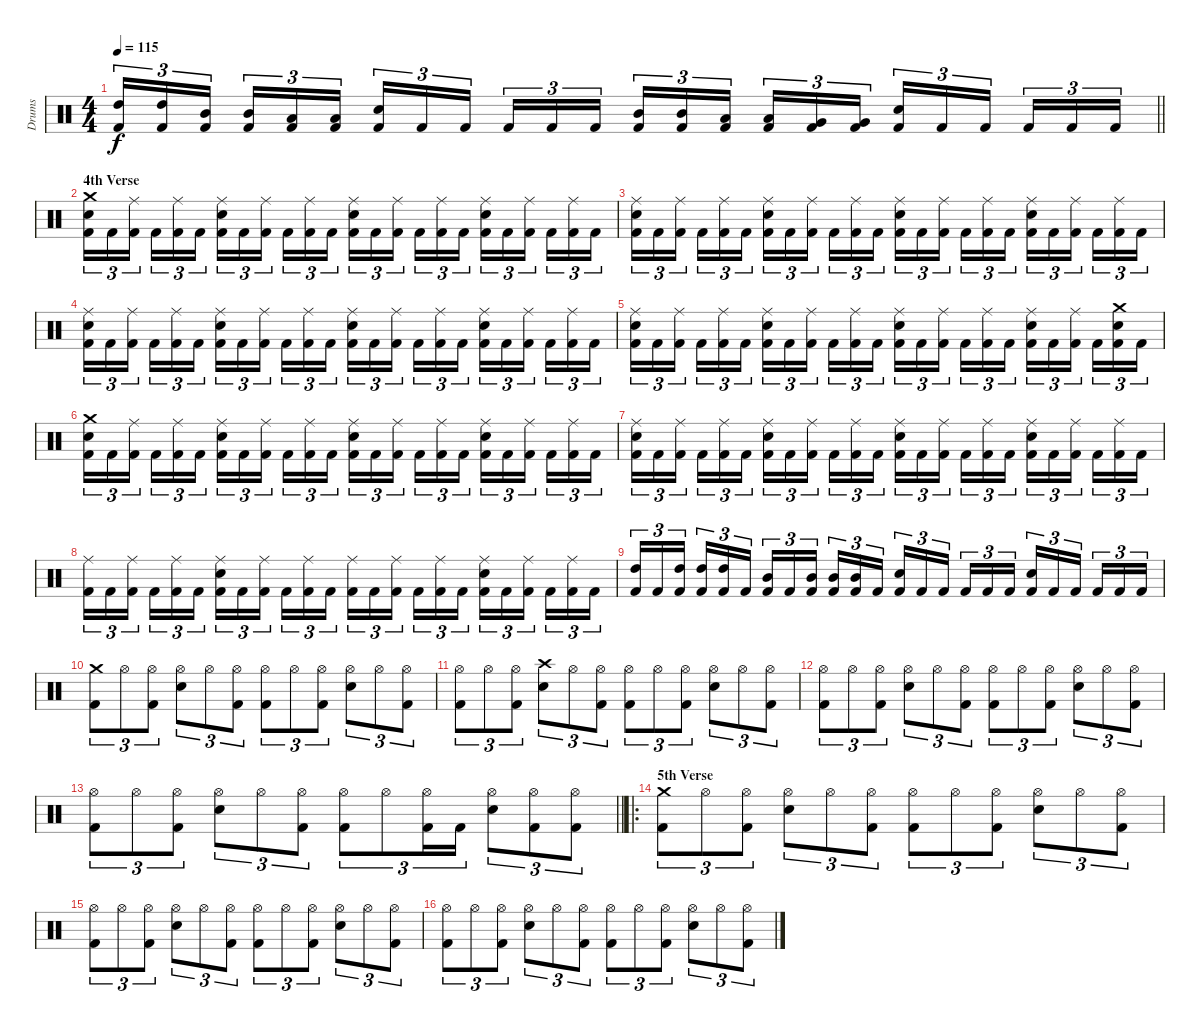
\track ("Drums" "Drums") {instrument percussion}
\staff {score}
\articulation defaults
\ts (4 4)
\tempo 115
\clef neutral
\barLineRight lightlight
\ks c
("Kick (hit) 2" "High Tom (hit)").16{tu (3 2) dy f} ("Kick (hit) 2" "High Tom (hit)").16{tu (3 2)} ("Kick (hit) 2" "Mid Tom (hit)").16{tu (3 2)} ("Kick (hit) 2" "Mid Tom (hit)").16{tu (3 2)} ("Kick (hit) 2" "Low Tom (hit)").16{tu (3 2)} ("Kick (hit) 2" "Low Tom (hit)").16{tu (3 2)} ("Kick (hit) 2" "Electric Snare (hit)").16{tu (3 2)} "Kick (hit) 2".16{tu (3 2)} "Kick (hit) 2".16{tu (3 2)} "Kick (hit) 2".16{tu (3 2)} "Kick (hit) 2".16{tu (3 2)} "Kick (hit) 2".16{tu (3 2)} ("Kick (hit) 2" "Mid Tom (hit)").16{tu (3 2)} ("Kick (hit) 2" "Mid Tom (hit)").16{tu (3 2)} ("Kick (hit) 2" "Low Tom (hit)").16{tu (3 2)} ("Kick (hit) 2" "Low Tom (hit)").16{tu (3 2)} ("Kick (hit) 2" "Very Low Tom (hit)").16{tu (3 2)} ("Kick (hit) 2" "Very Low Tom (hit)").16{tu (3 2)} ("Kick (hit) 2" "Electric Snare (hit)").16{tu (3 2)} "Kick (hit) 2".16{tu (3 2)} "Kick (hit) 2".16{tu (3 2)} "Kick (hit) 2".16{tu (3 2)} "Kick (hit) 2".16{tu (3 2)} "Kick (hit) 2".16{tu (3 2)} |
\section ("" "4th Verse")
("Kick (hit) 2" "Electric Snare (hit)" "Crash medium (hit)").16{tu (3 2)} "Kick (hit) 2".16{tu (3 2)} ("Kick (hit) 2" "Ride (middle)").16{tu (3 2)} "Kick (hit) 2".16{tu (3 2)} ("Kick (hit) 2" "Ride (middle)").16{tu (3 2)} "Kick (hit) 2".16{tu (3 2)} ("Kick (hit) 2" "Electric Snare (hit)" "Ride (middle)").16{tu (3 2)} "Kick (hit) 2".16{tu (3 2)} ("Kick (hit) 2" "Ride (middle)").16{tu (3 2)} "Kick (hit) 2".16{tu (3 2)} ("Kick (hit) 2" "Ride (middle)").16{tu (3 2)} "Kick (hit) 2".16{tu (3 2)} ("Kick (hit) 2" "Electric Snare (hit)" "Ride (middle)").16{tu (3 2)} "Kick (hit) 2".16{tu (3 2)} ("Kick (hit) 2" "Ride (middle)").16{tu (3 2)} "Kick (hit) 2".16{tu (3 2)} ("Kick (hit) 2" "Ride (middle)").16{tu (3 2)} "Kick (hit) 2".16{tu (3 2)} ("Kick (hit) 2" "Electric Snare (hit)" "Ride (middle)").16{tu (3 2)} "Kick (hit) 2".16{tu (3 2)} ("Kick (hit) 2" "Ride (middle)").16{tu (3 2)} "Kick (hit) 2".16{tu (3 2)} ("Kick (hit) 2" "Ride (middle)").16{tu (3 2)} "Kick (hit) 2".16{tu (3 2)} |
("Kick (hit) 2" "Electric Snare (hit)" "Ride (middle)").16{tu (3 2)} "Kick (hit) 2".16{tu (3 2)} ("Kick (hit) 2" "Ride (middle)").16{tu (3 2)} "Kick (hit) 2".16{tu (3 2)} ("Kick (hit) 2" "Ride (middle)").16{tu (3 2)} "Kick (hit) 2".16{tu (3 2)} ("Kick (hit) 2" "Electric Snare (hit)" "Ride (middle)").16{tu (3 2)} "Kick (hit) 2".16{tu (3 2)} ("Kick (hit) 2" "Ride (middle)").16{tu (3 2)} "Kick (hit) 2".16{tu (3 2)} ("Kick (hit) 2" "Ride (middle)").16{tu (3 2)} "Kick (hit) 2".16{tu (3 2)} ("Kick (hit) 2" "Electric Snare (hit)" "Ride (middle)").16{tu (3 2)} "Kick (hit) 2".16{tu (3 2)} ("Kick (hit) 2" "Ride (middle)").16{tu (3 2)} "Kick (hit) 2".16{tu (3 2)} ("Kick (hit) 2" "Ride (middle)").16{tu (3 2)} "Kick (hit) 2".16{tu (3 2)} ("Kick (hit) 2" "Electric Snare (hit)" "Ride (middle)").16{tu (3 2)} "Kick (hit) 2".16{tu (3 2)} ("Kick (hit) 2" "Ride (middle)").16{tu (3 2)} "Kick (hit) 2".16{tu (3 2)} ("Kick (hit) 2" "Ride (middle)").16{tu (3 2)} "Kick (hit) 2".16{tu (3 2)} |
("Kick (hit) 2" "Electric Snare (hit)" "Ride (middle)").16{tu (3 2)} "Kick (hit) 2".16{tu (3 2)} ("Kick (hit) 2" "Ride (middle)").16{tu (3 2)} "Kick (hit) 2".16{tu (3 2)} ("Kick (hit) 2" "Ride (middle)").16{tu (3 2)} "Kick (hit) 2".16{tu (3 2)} ("Kick (hit) 2" "Electric Snare (hit)" "Ride (middle)").16{tu (3 2)} "Kick (hit) 2".16{tu (3 2)} ("Kick (hit) 2" "Ride (middle)").16{tu (3 2)} "Kick (hit) 2".16{tu (3 2)} ("Kick (hit) 2" "Ride (middle)").16{tu (3 2)} "Kick (hit) 2".16{tu (3 2)} ("Kick (hit) 2" "Electric Snare (hit)" "Ride (middle)").16{tu (3 2)} "Kick (hit) 2".16{tu (3 2)} ("Kick (hit) 2" "Ride (middle)").16{tu (3 2)} "Kick (hit) 2".16{tu (3 2)} ("Kick (hit) 2" "Ride (middle)").16{tu (3 2)} "Kick (hit) 2".16{tu (3 2)} ("Kick (hit) 2" "Electric Snare (hit)" "Ride (middle)").16{tu (3 2)} "Kick (hit) 2".16{tu (3 2)} ("Kick (hit) 2" "Ride (middle)").16{tu (3 2)} "Kick (hit) 2".16{tu (3 2)} ("Kick (hit) 2" "Ride (middle)").16{tu (3 2)} "Kick (hit) 2".16{tu (3 2)} |
("Kick (hit) 2" "Electric Snare (hit)" "Ride (middle)").16{tu (3 2)} "Kick (hit) 2".16{tu (3 2)} ("Kick (hit) 2" "Ride (middle)").16{tu (3 2)} "Kick (hit) 2".16{tu (3 2)} ("Kick (hit) 2" "Ride (middle)").16{tu (3 2)} "Kick (hit) 2".16{tu (3 2)} ("Kick (hit) 2" "Electric Snare (hit)" "Ride (middle)").16{tu (3 2)} "Kick (hit) 2".16{tu (3 2)} ("Kick (hit) 2" "Ride (middle)").16{tu (3 2)} "Kick (hit) 2".16{tu (3 2)} ("Kick (hit) 2" "Ride (middle)").16{tu (3 2)} "Kick (hit) 2".16{tu (3 2)} ("Kick (hit) 2" "Electric Snare (hit)" "Ride (middle)").16{tu (3 2)} "Kick (hit) 2".16{tu (3 2)} ("Kick (hit) 2" "Ride (middle)").16{tu (3 2)} "Kick (hit) 2".16{tu (3 2)} ("Kick (hit) 2" "Ride (middle)").16{tu (3 2)} "Kick (hit) 2".16{tu (3 2)} ("Kick (hit) 2" "Electric Snare (hit)" "Ride (middle)").16{tu (3 2)} "Kick (hit) 2".16{tu (3 2)} ("Kick (hit) 2" "Ride (middle)").16{tu (3 2)} "Kick (hit) 2".16{tu (3 2)} ("Kick (hit) 2" "Electric Snare (hit)" "Crash medium (hit)").16{tu (3 2)} "Kick (hit) 2".16{tu (3 2)} |
("Kick (hit) 2" "Electric Snare (hit)" "Crash medium (hit)").16{tu (3 2)} "Kick (hit) 2".16{tu (3 2)} ("Kick (hit) 2" "Ride (middle)").16{tu (3 2)} "Kick (hit) 2".16{tu (3 2)} ("Kick (hit) 2" "Ride (middle)").16{tu (3 2)} "Kick (hit) 2".16{tu (3 2)} ("Kick (hit) 2" "Electric Snare (hit)" "Ride (middle)").16{tu (3 2)} "Kick (hit) 2".16{tu (3 2)} ("Kick (hit) 2" "Ride (middle)").16{tu (3 2)} "Kick (hit) 2".16{tu (3 2)} ("Kick (hit) 2" "Ride (middle)").16{tu (3 2)} "Kick (hit) 2".16{tu (3 2)} ("Kick (hit) 2" "Electric Snare (hit)" "Ride (middle)").16{tu (3 2)} "Kick (hit) 2".16{tu (3 2)} ("Kick (hit) 2" "Ride (middle)").16{tu (3 2)} "Kick (hit) 2".16{tu (3 2)} ("Kick (hit) 2" "Ride (middle)").16{tu (3 2)} "Kick (hit) 2".16{tu (3 2)} ("Kick (hit) 2" "Electric Snare (hit)" "Ride (middle)").16{tu (3 2)} "Kick (hit) 2".16{tu (3 2)} ("Kick (hit) 2" "Ride (middle)").16{tu (3 2)} "Kick (hit) 2".16{tu (3 2)} ("Kick (hit) 2" "Ride (middle)").16{tu (3 2)} "Kick (hit) 2".16{tu (3 2)} |
("Kick (hit) 2" "Electric Snare (hit)" "Ride (middle)").16{tu (3 2)} "Kick (hit) 2".16{tu (3 2)} ("Kick (hit) 2" "Ride (middle)").16{tu (3 2)} "Kick (hit) 2".16{tu (3 2)} ("Kick (hit) 2" "Ride (middle)").16{tu (3 2)} "Kick (hit) 2".16{tu (3 2)} ("Kick (hit) 2" "Electric Snare (hit)" "Ride (middle)").16{tu (3 2)} "Kick (hit) 2".16{tu (3 2)} ("Kick (hit) 2" "Ride (middle)").16{tu (3 2)} "Kick (hit) 2".16{tu (3 2)} ("Kick (hit) 2" "Ride (middle)").16{tu (3 2)} "Kick (hit) 2".16{tu (3 2)} ("Kick (hit) 2" "Electric Snare (hit)" "Ride (middle)").16{tu (3 2)} "Kick (hit) 2".16{tu (3 2)} ("Kick (hit) 2" "Ride (middle)").16{tu (3 2)} "Kick (hit) 2".16{tu (3 2)} ("Kick (hit) 2" "Ride (middle)").16{tu (3 2)} "Kick (hit) 2".16{tu (3 2)} ("Kick (hit) 2" "Electric Snare (hit)" "Ride (middle)").16{tu (3 2)} "Kick (hit) 2".16{tu (3 2)} ("Kick (hit) 2" "Ride (middle)").16{tu (3 2)} "Kick (hit) 2".16{tu (3 2)} ("Kick (hit) 2" "Ride (middle)").16{tu (3 2)} "Kick (hit) 2".16{tu (3 2)} |
("Kick (hit) 2" "Ride (middle)").16{tu (3 2)} "Kick (hit) 2".16{tu (3 2)} ("Kick (hit) 2" "Ride (middle)").16{tu (3 2)} "Kick (hit) 2".16{tu (3 2)} ("Kick (hit) 2" "Ride (middle)").16{tu (3 2)} "Kick (hit) 2".16{tu (3 2)} ("Kick (hit) 2" "Electric Snare (hit)" "Ride (middle)").16{tu (3 2)} "Kick (hit) 2".16{tu (3 2)} ("Kick (hit) 2" "Ride (middle)").16{tu (3 2)} "Kick (hit) 2".16{tu (3 2)} ("Kick (hit) 2" "Ride (middle)").16{tu (3 2)} "Kick (hit) 2".16{tu (3 2)} ("Kick (hit) 2" "Ride (middle)").16{tu (3 2)} "Kick (hit) 2".16{tu (3 2)} ("Kick (hit) 2" "Ride (middle)").16{tu (3 2)} "Kick (hit) 2".16{tu (3 2)} ("Kick (hit) 2" "Ride (middle)").16{tu (3 2)} "Kick (hit) 2".16{tu (3 2)} ("Kick (hit) 2" "Electric Snare (hit)" "Ride (middle)").16{tu (3 2)} "Kick (hit) 2".16{tu (3 2)} ("Kick (hit) 2" "Ride (middle)").16{tu (3 2)} "Kick (hit) 2".16{tu (3 2)} ("Kick (hit) 2" "Ride (middle)").16{tu (3 2)} "Kick (hit) 2".16{tu (3 2)} |
("Kick (hit) 2" "High Tom (hit)").16{tu (3 2)} "Kick (hit) 2".16{tu (3 2)} ("Kick (hit) 2" "High Tom (hit)").16{tu (3 2)} ("Kick (hit) 2" "High Tom (hit)").16{tu (3 2)} ("Kick (hit) 2" "High Tom (hit)").16{tu (3 2)} "Kick (hit) 2".16{tu (3 2)} ("Kick (hit) 2" "Mid Tom (hit)").16{tu (3 2)} "Kick (hit) 2".16{tu (3 2)} ("Kick (hit) 2" "Mid Tom (hit)").16{tu (3 2)} ("Kick (hit) 2" "Mid Tom (hit)").16{tu (3 2)} ("Kick (hit) 2" "Mid Tom (hit)").16{tu (3 2)} "Kick (hit) 2".16{tu (3 2)} ("Kick (hit) 2" "Electric Snare (hit)").16{tu (3 2)} "Kick (hit) 2".16{tu (3 2)} "Kick (hit) 2".16{tu (3 2)} "Kick (hit) 2".16{tu (3 2)} "Kick (hit) 2".16{tu (3 2)} "Kick (hit) 2".16{tu (3 2)} ("Kick (hit) 2" "Electric Snare (hit)").16{tu (3 2)} "Kick (hit) 2".16{tu (3 2)} "Kick (hit) 2".16{tu (3 2)} "Kick (hit) 2".16{tu (3 2)} "Kick (hit) 2".16{tu (3 2)} "Kick (hit) 2".16{tu (3 2)} |
("Kick (hit) 2" "Crash medium (hit)").8{tu (3 2)} "Hi-Hat (open)".8{tu (3 2)} ("Kick (hit) 2" "Hi-Hat (open)").8{tu (3 2)} ("Electric Snare (hit)" "Hi-Hat (open)").8{tu (3 2)} "Hi-Hat (open)".8{tu (3 2)} ("Kick (hit) 2" "Hi-Hat (open)").8{tu (3 2)} ("Kick (hit) 2" "Hi-Hat (open)").8{tu (3 2)} "Hi-Hat (open)".8{tu (3 2)} ("Kick (hit) 2" "Hi-Hat (open)").8{tu (3 2)} ("Electric Snare (hit)" "Hi-Hat (open)").8{tu (3 2)} "Hi-Hat (open)".8{tu (3 2)} ("Kick (hit) 2" "Hi-Hat (open)").8{tu (3 2)} |
("Kick (hit) 2" "Hi-Hat (open)").8{tu (3 2)} "Hi-Hat (open)".8{tu (3 2)} ("Kick (hit) 2" "Hi-Hat (open)").8{tu (3 2)} ("Electric Snare (hit)" "Crash high (hit)").8{tu (3 2)} "Hi-Hat (open)".8{tu (3 2)} ("Kick (hit) 2" "Hi-Hat (open)").8{tu (3 2)} ("Kick (hit) 2" "Hi-Hat (open)").8{tu (3 2)} "Hi-Hat (open)".8{tu (3 2)} ("Kick (hit) 2" "Hi-Hat (open)").8{tu (3 2)} ("Electric Snare (hit)" "Hi-Hat (open)").8{tu (3 2)} "Hi-Hat (open)".8{tu (3 2)} ("Kick (hit) 2" "Hi-Hat (open)").8{tu (3 2)} |
("Kick (hit) 2" "Hi-Hat (open)").8{tu (3 2)} "Hi-Hat (open)".8{tu (3 2)} ("Kick (hit) 2" "Hi-Hat (open)").8{tu (3 2)} ("Electric Snare (hit)" "Hi-Hat (open)").8{tu (3 2)} "Hi-Hat (open)".8{tu (3 2)} ("Kick (hit) 2" "Hi-Hat (open)").8{tu (3 2)} ("Kick (hit) 2" "Hi-Hat (open)").8{tu (3 2)} "Hi-Hat (open)".8{tu (3 2)} ("Kick (hit) 2" "Hi-Hat (open)").8{tu (3 2)} ("Electric Snare (hit)" "Hi-Hat (open)").8{tu (3 2)} "Hi-Hat (open)".8{tu (3 2)} ("Kick (hit) 2" "Hi-Hat (open)").8{tu (3 2)} |
\barLineRight lightlight
("Kick (hit) 2" "Hi-Hat (open)").8{tu (3 2)} "Hi-Hat (open)".8{tu (3 2)} ("Kick (hit) 2" "Hi-Hat (open)").8{tu (3 2)} ("Electric Snare (hit)" "Hi-Hat (open)").8{tu (3 2)} "Hi-Hat (open)".8{tu (3 2)} ("Kick (hit) 2" "Hi-Hat (open)").8{tu (3 2)} ("Kick (hit) 2" "Hi-Hat (open)").8{tu (3 2)} "Hi-Hat (open)".8{tu (3 2)} ("Kick (hit) 2" "Hi-Hat (open)").16{tu (3 2)} "Kick (hit) 2".16{tu (3 2)} ("Electric Snare (hit)" "Hi-Hat (open)").8{tu (3 2)} ("Kick (hit) 2" "Hi-Hat (open)").8{tu (3 2)} ("Kick (hit) 2" "Hi-Hat (open)").8{tu (3 2)} |
\ro
\section ("" "5th Verse")
("Kick (hit) 2" "Crash medium (hit)").8{tu (3 2)} "Hi-Hat (open)".8{tu (3 2)} ("Kick (hit) 2" "Hi-Hat (open)").8{tu (3 2)} ("Electric Snare (hit)" "Hi-Hat (open)").8{tu (3 2)} "Hi-Hat (open)".8{tu (3 2)} ("Kick (hit) 2" "Hi-Hat (open)").8{tu (3 2)} ("Kick (hit) 2" "Hi-Hat (open)").8{tu (3 2)} "Hi-Hat (open)".8{tu (3 2)} ("Kick (hit) 2" "Hi-Hat (open)").8{tu (3 2)} ("Electric Snare (hit)" "Hi-Hat (open)").8{tu (3 2)} "Hi-Hat (open)".8{tu (3 2)} ("Kick (hit) 2" "Hi-Hat (open)").8{tu (3 2)} |
("Kick (hit) 2" "Hi-Hat (open)").8{tu (3 2)} "Hi-Hat (open)".8{tu (3 2)} ("Kick (hit) 2" "Hi-Hat (open)").8{tu (3 2)} ("Electric Snare (hit)" "Hi-Hat (open)").8{tu (3 2)} "Hi-Hat (open)".8{tu (3 2)} ("Kick (hit) 2" "Hi-Hat (open)").8{tu (3 2)} ("Kick (hit) 2" "Hi-Hat (open)").8{tu (3 2)} "Hi-Hat (open)".8{tu (3 2)} ("Kick (hit) 2" "Hi-Hat (open)").8{tu (3 2)} ("Electric Snare (hit)" "Hi-Hat (open)").8{tu (3 2)} "Hi-Hat (open)".8{tu (3 2)} ("Kick (hit) 2" "Hi-Hat (open)").8{tu (3 2)} |
("Kick (hit) 2" "Hi-Hat (open)").8{tu (3 2)} "Hi-Hat (open)".8{tu (3 2)} ("Kick (hit) 2" "Hi-Hat (open)").8{tu (3 2)} ("Electric Snare (hit)" "Hi-Hat (open)").8{tu (3 2)} "Hi-Hat (open)".8{tu (3 2)} ("Kick (hit) 2" "Hi-Hat (open)").8{tu (3 2)} ("Kick (hit) 2" "Hi-Hat (open)").8{tu (3 2)} "Hi-Hat (open)".8{tu (3 2)} ("Kick (hit) 2" "Hi-Hat (open)").8{tu (3 2)} ("Electric Snare (hit)" "Hi-Hat (open)").8{tu (3 2)} "Hi-Hat (open)".8{tu (3 2)} ("Kick (hit) 2" "Hi-Hat (open)").8{tu (3 2)}
